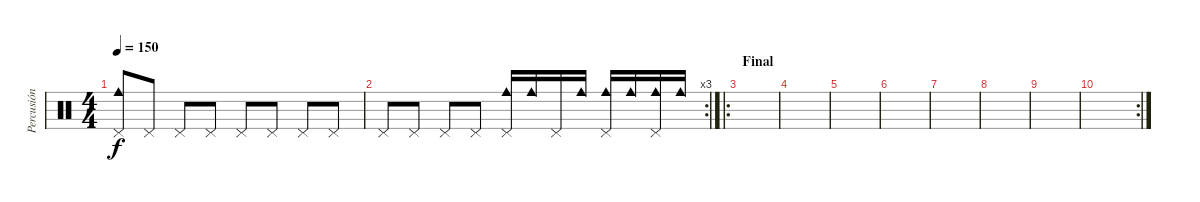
\track ("Percusión" "Percusión") {instrument percussion}
\staff {score}
\articulation defaults
\ts (4 4)
\tempo 150
\clef neutral
\ks c
("Pedal Hi-Hat (hit)" "Cowbell medium (hit)").8{dy f} "Pedal Hi-Hat (hit)".8 "Pedal Hi-Hat (hit)".8 "Pedal Hi-Hat (hit)".8 "Pedal Hi-Hat (hit)".8 "Pedal Hi-Hat (hit)".8 "Pedal Hi-Hat (hit)".8 "Pedal Hi-Hat (hit)".8 |
\rc 3 "Pedal Hi-Hat (hit)".8 "Pedal Hi-Hat (hit)".8 "Pedal Hi-Hat (hit)".8 "Pedal Hi-Hat (hit)".8
("Pedal Hi-Hat (hit)" "Cowbell medium (hit)").16 "Cowbell medium (hit)".16 "Pedal Hi-Hat (hit)".16 "Cowbell medium (hit)".16 ("Pedal Hi-Hat (hit)" "Cowbell medium (hit)").16 "Cowbell medium (hit)".16 ("Pedal Hi-Hat (hit)" "Cowbell medium (hit)").16 "Cowbell medium (hit)".16 |
\ro
\section ("" "Final")
|
|
|
|
|
|
|
\rc 2
